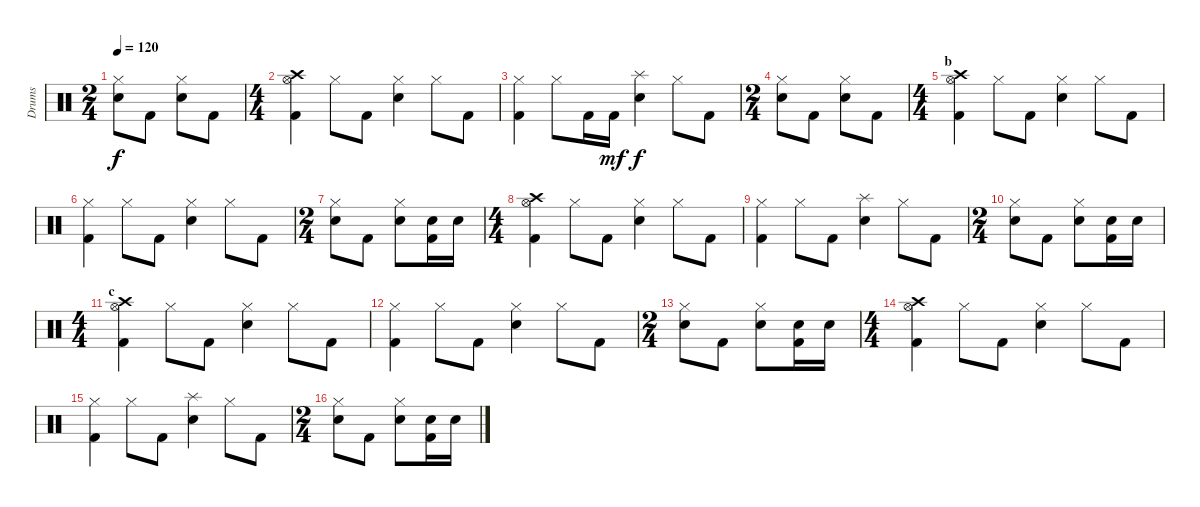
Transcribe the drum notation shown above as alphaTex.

\track ("Drums" "Drums") {instrument percussion}
\staff {score}
\articulation defaults
\ts (2 4)
\tempo 120
\clef neutral
\ks c
("Hi-Hat (closed)" "Electric Snare (hit)").8{dy f} "Kick (hit) 2".8 ("Hi-Hat (closed)" "Electric Snare (hit)").8 "Kick (hit) 2".8 |
\ts (4 4)
("Hi-Hat (open)" "Crash high (hit)" "Kick (hit) 2").4 "Hi-Hat (closed)".8 "Kick (hit) 2".8 ("Hi-Hat (closed)" "Electric Snare (hit)").4 "Hi-Hat (closed)".8 "Kick (hit) 2".8 |
("Hi-Hat (closed)" "Kick (hit) 2").4 "Hi-Hat (closed)".8 "Kick (hit) 2".16 "Kick (hit) 2".16{dy mf} ("Splash (hit)" "Electric Snare (hit)").4{dy f} "Hi-Hat (closed)".8 "Kick (hit) 2".8 |
\ts (2 4)
("Hi-Hat (closed)" "Electric Snare (hit)").8 "Kick (hit) 2".8 ("Hi-Hat (closed)" "Electric Snare (hit)").8 "Kick (hit) 2".8 |
\ts (4 4)
\section ("" "b")
("Hi-Hat (open)" "Crash high (hit)" "Kick (hit) 2").4 "Hi-Hat (closed)".8 "Kick (hit) 2".8 ("Hi-Hat (closed)" "Electric Snare (hit)").4 "Hi-Hat (closed)".8 "Kick (hit) 2".8 |
("Hi-Hat (closed)" "Kick (hit) 2").4 "Hi-Hat (closed)".8 "Kick (hit) 2".8 ("Hi-Hat (closed)" "Electric Snare (hit)").4 "Hi-Hat (closed)".8 "Kick (hit) 2".8 |
\ts (2 4)
("Hi-Hat (closed)" "Electric Snare (hit)").8 "Kick (hit) 2".8 ("Hi-Hat (closed)" "Electric Snare (hit)").8 ("Electric Snare (hit)" "Kick (hit) 2").16 "Electric Snare (hit)".16 |
\ts (4 4)
("Hi-Hat (open)" "Crash high (hit)" "Kick (hit) 2").4 "Hi-Hat (closed)".8 "Kick (hit) 2".8 ("Hi-Hat (closed)" "Electric Snare (hit)").4 "Hi-Hat (closed)".8 "Kick (hit) 2".8 |
("Hi-Hat (closed)" "Kick (hit) 2").4 "Hi-Hat (closed)".8 "Kick (hit) 2".8 ("Splash (hit)" "Electric Snare (hit)").4 "Hi-Hat (closed)".8 "Kick (hit) 2".8 |
\ts (2 4)
("Hi-Hat (closed)" "Electric Snare (hit)").8 "Kick (hit) 2".8 ("Hi-Hat (closed)" "Electric Snare (hit)").8 ("Electric Snare (hit)" "Kick (hit) 2").16 "Electric Snare (hit)".16 |
\ts (4 4)
\section ("" "c")
("Hi-Hat (open)" "Crash high (hit)" "Kick (hit) 2").4 "Hi-Hat (closed)".8 "Kick (hit) 2".8 ("Hi-Hat (closed)" "Electric Snare (hit)").4 "Hi-Hat (closed)".8 "Kick (hit) 2".8 |
("Hi-Hat (closed)" "Kick (hit) 2").4 "Hi-Hat (closed)".8 "Kick (hit) 2".8 ("Hi-Hat (closed)" "Electric Snare (hit)").4 "Hi-Hat (closed)".8 "Kick (hit) 2".8 |
\ts (2 4)
("Hi-Hat (closed)" "Electric Snare (hit)").8 "Kick (hit) 2".8 ("Hi-Hat (closed)" "Electric Snare (hit)").8 ("Electric Snare (hit)" "Kick (hit) 2").16 "Electric Snare (hit)".16 |
\ts (4 4)
("Hi-Hat (open)" "Crash high (hit)" "Kick (hit) 2").4 "Hi-Hat (closed)".8 "Kick (hit) 2".8 ("Hi-Hat (closed)" "Electric Snare (hit)").4 "Hi-Hat (closed)".8 "Kick (hit) 2".8 |
("Hi-Hat (closed)" "Kick (hit) 2").4 "Hi-Hat (closed)".8 "Kick (hit) 2".8 ("Splash (hit)" "Electric Snare (hit)").4 "Hi-Hat (closed)".8 "Kick (hit) 2".8 |
\ts (2 4)
("Hi-Hat (closed)" "Electric Snare (hit)").8 "Kick (hit) 2".8 ("Hi-Hat (closed)" "Electric Snare (hit)").8 ("Electric Snare (hit)" "Kick (hit) 2").16 "Electric Snare (hit)".16
